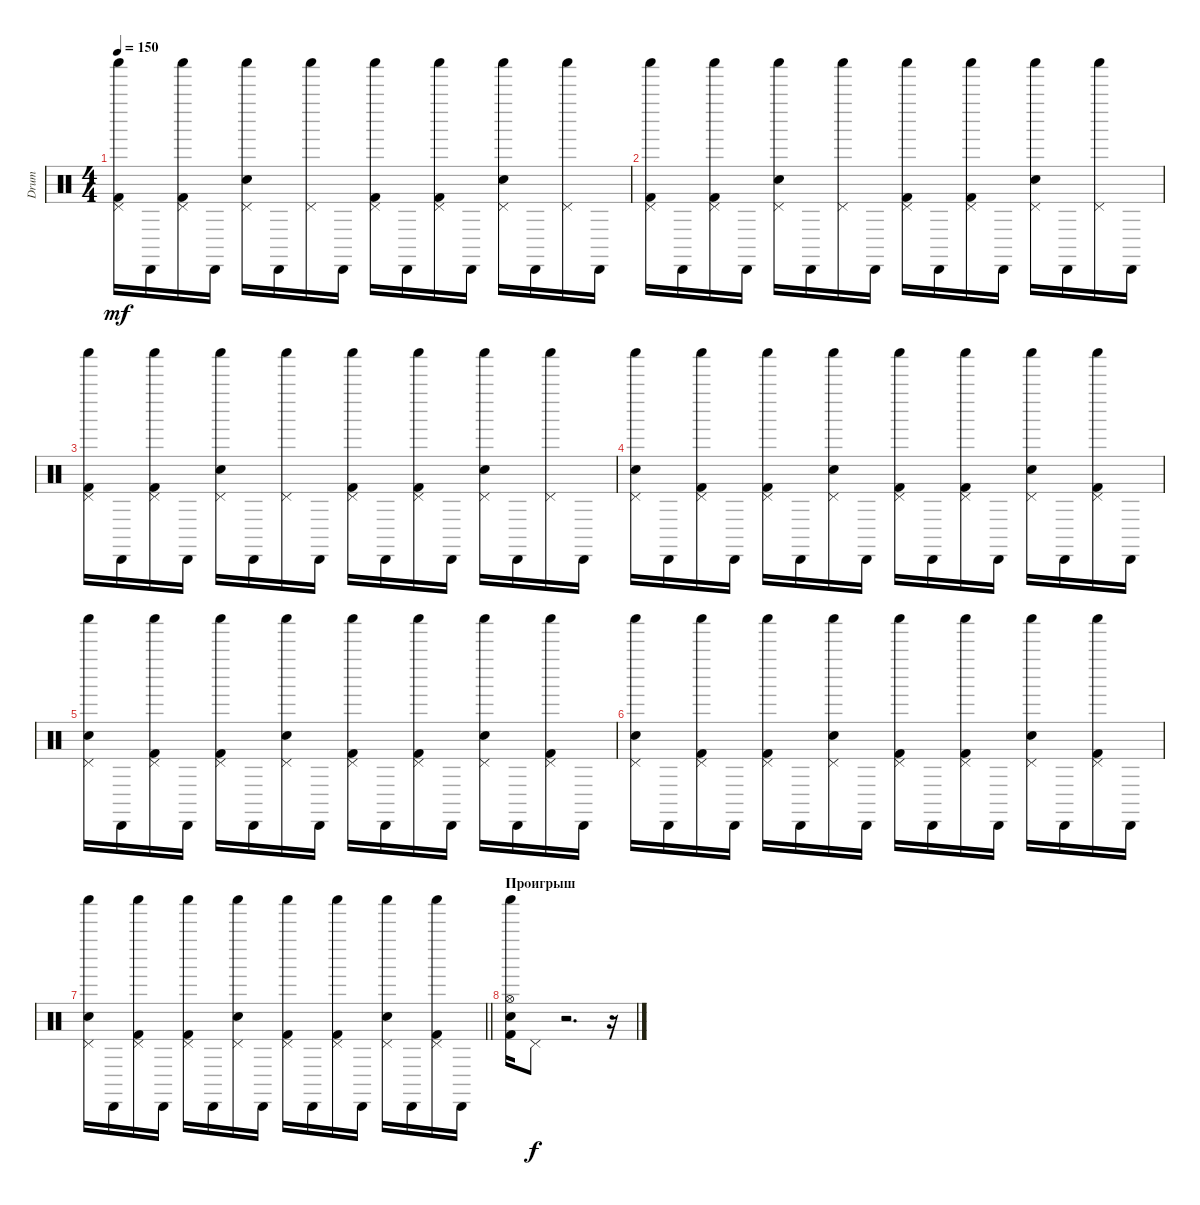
\track ("Drum" "Drum") {instrument percussion}
\staff {score}
\articulation defaults
\ts (4 4)
\tempo 150
\clef neutral
\ks c
("Shaker (hit)" "Pedal Hi-Hat (hit)" "Kick (hit) 2").16{dy mf} "Cabasa (hit)".16 ("Pedal Hi-Hat (hit)" "Kick (hit) 2" "Shaker (hit)").16 "Cabasa (hit)".16 ("Shaker (hit)" "Pedal Hi-Hat (hit)" "Snare (hit) 2").16 "Cabasa (hit)".16 ("Pedal Hi-Hat (hit)" "Shaker (hit)").16 "Cabasa (hit)".16 ("Shaker (hit)" "Pedal Hi-Hat (hit)" "Kick (hit) 2").16 "Cabasa (hit)".16 ("Pedal Hi-Hat (hit)" "Kick (hit) 2" "Shaker (hit)").16 "Cabasa (hit)".16 ("Shaker (hit)" "Pedal Hi-Hat (hit)" "Snare (hit) 2").16 "Cabasa (hit)".16 ("Pedal Hi-Hat (hit)" "Shaker (hit)").16 "Cabasa (hit)".16 |
("Shaker (hit)" "Pedal Hi-Hat (hit)" "Kick (hit) 2").16 "Cabasa (hit)".16 ("Pedal Hi-Hat (hit)" "Kick (hit) 2" "Shaker (hit)").16 "Cabasa (hit)".16 ("Shaker (hit)" "Pedal Hi-Hat (hit)" "Snare (hit) 2").16 "Cabasa (hit)".16 ("Pedal Hi-Hat (hit)" "Shaker (hit)").16 "Cabasa (hit)".16 ("Shaker (hit)" "Pedal Hi-Hat (hit)" "Kick (hit) 2").16 "Cabasa (hit)".16 ("Pedal Hi-Hat (hit)" "Kick (hit) 2" "Shaker (hit)").16 "Cabasa (hit)".16 ("Shaker (hit)" "Pedal Hi-Hat (hit)" "Snare (hit) 2").16 "Cabasa (hit)".16 ("Pedal Hi-Hat (hit)" "Shaker (hit)").16 "Cabasa (hit)".16 |
("Shaker (hit)" "Pedal Hi-Hat (hit)" "Kick (hit) 2").16 "Cabasa (hit)".16 ("Pedal Hi-Hat (hit)" "Kick (hit) 2" "Shaker (hit)").16 "Cabasa (hit)".16 ("Shaker (hit)" "Pedal Hi-Hat (hit)" "Snare (hit) 2").16 "Cabasa (hit)".16 ("Pedal Hi-Hat (hit)" "Shaker (hit)").16 "Cabasa (hit)".16 ("Shaker (hit)" "Pedal Hi-Hat (hit)" "Kick (hit) 2").16 "Cabasa (hit)".16 ("Pedal Hi-Hat (hit)" "Kick (hit) 2" "Shaker (hit)").16 "Cabasa (hit)".16 ("Shaker (hit)" "Pedal Hi-Hat (hit)" "Snare (hit) 2").16 "Cabasa (hit)".16 ("Pedal Hi-Hat (hit)" "Shaker (hit)").16 "Cabasa (hit)".16 |
("Snare (hit) 2" "Shaker (hit)" "Pedal Hi-Hat (hit)").16 "Cabasa (hit)".16 ("Pedal Hi-Hat (hit)" "Kick (hit) 2" "Shaker (hit)").16 "Cabasa (hit)".16 ("Kick (hit) 2" "Shaker (hit)" "Pedal Hi-Hat (hit)").16 "Cabasa (hit)".16 ("Snare (hit) 2" "Pedal Hi-Hat (hit)" "Shaker (hit)").16 "Cabasa (hit)".16 ("Shaker (hit)" "Pedal Hi-Hat (hit)" "Kick (hit) 2").16 "Cabasa (hit)".16 ("Pedal Hi-Hat (hit)" "Kick (hit) 2" "Shaker (hit)").16 "Cabasa (hit)".16 ("Shaker (hit)" "Pedal Hi-Hat (hit)" "Snare (hit) 2").16 "Cabasa (hit)".16 ("Kick (hit) 2" "Pedal Hi-Hat (hit)" "Shaker (hit)").16 "Cabasa (hit)".16 |
("Snare (hit) 2" "Shaker (hit)" "Pedal Hi-Hat (hit)").16 "Cabasa (hit)".16 ("Pedal Hi-Hat (hit)" "Kick (hit) 2" "Shaker (hit)").16 "Cabasa (hit)".16 ("Kick (hit) 2" "Shaker (hit)" "Pedal Hi-Hat (hit)").16 "Cabasa (hit)".16 ("Snare (hit) 2" "Pedal Hi-Hat (hit)" "Shaker (hit)").16 "Cabasa (hit)".16 ("Shaker (hit)" "Pedal Hi-Hat (hit)" "Kick (hit) 2").16 "Cabasa (hit)".16 ("Pedal Hi-Hat (hit)" "Kick (hit) 2" "Shaker (hit)").16 "Cabasa (hit)".16 ("Shaker (hit)" "Pedal Hi-Hat (hit)" "Snare (hit) 2").16 "Cabasa (hit)".16 ("Kick (hit) 2" "Pedal Hi-Hat (hit)" "Shaker (hit)").16 "Cabasa (hit)".16 |
("Snare (hit) 2" "Shaker (hit)" "Pedal Hi-Hat (hit)").16 "Cabasa (hit)".16 ("Pedal Hi-Hat (hit)" "Kick (hit) 2" "Shaker (hit)").16 "Cabasa (hit)".16 ("Kick (hit) 2" "Shaker (hit)" "Pedal Hi-Hat (hit)").16 "Cabasa (hit)".16 ("Snare (hit) 2" "Pedal Hi-Hat (hit)" "Shaker (hit)").16 "Cabasa (hit)".16 ("Shaker (hit)" "Pedal Hi-Hat (hit)" "Kick (hit) 2").16 "Cabasa (hit)".16 ("Pedal Hi-Hat (hit)" "Kick (hit) 2" "Shaker (hit)").16 "Cabasa (hit)".16 ("Shaker (hit)" "Pedal Hi-Hat (hit)" "Snare (hit) 2").16 "Cabasa (hit)".16 ("Kick (hit) 2" "Pedal Hi-Hat (hit)" "Shaker (hit)").16 "Cabasa (hit)".16 |
\barLineRight lightlight
("Snare (hit) 2" "Shaker (hit)" "Pedal Hi-Hat (hit)").16 "Cabasa (hit)".16 ("Pedal Hi-Hat (hit)" "Kick (hit) 2" "Shaker (hit)").16 "Cabasa (hit)".16 ("Kick (hit) 2" "Shaker (hit)" "Pedal Hi-Hat (hit)").16 "Cabasa (hit)".16 ("Snare (hit) 2" "Pedal Hi-Hat (hit)" "Shaker (hit)").16 "Cabasa (hit)".16 ("Shaker (hit)" "Pedal Hi-Hat (hit)" "Kick (hit) 2").16 "Cabasa (hit)".16 ("Pedal Hi-Hat (hit)" "Kick (hit) 2" "Shaker (hit)").16 "Cabasa (hit)".16 ("Shaker (hit)" "Pedal Hi-Hat (hit)" "Snare (hit) 2").16 "Cabasa (hit)".16 ("Kick (hit) 2" "Pedal Hi-Hat (hit)" "Shaker (hit)").16 "Cabasa (hit)".16 |
\section ("" "Проигрыш")
("Hi-Hat (open)" "Kick (hit) 2" "Snare (hit) 2" "Shaker (hit)").16 "Pedal Hi-Hat (hit)".8{dy f} r.2{d} r.16
